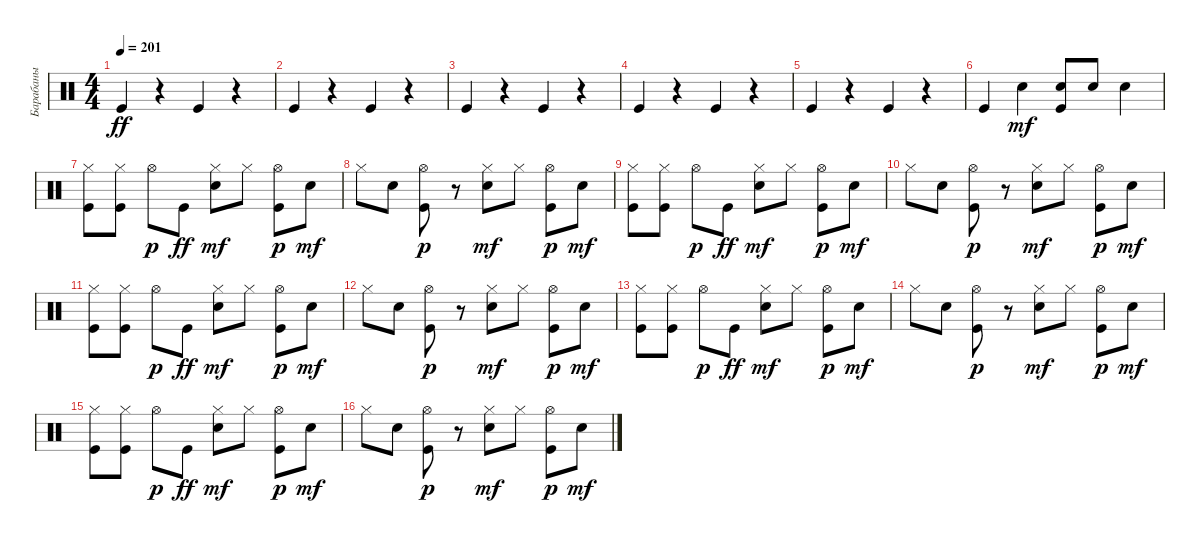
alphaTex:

\track ("Барабаны" "Барабаны") {instrument percussion}
\staff {score}
\articulation defaults
\ts (4 4)
\tempo 201
\clef neutral
\ks c "Kick (hit)".4{dy ff}
r.4 "Kick (hit)".4 r.4 |
"Kick (hit)".4 r.4 "Kick (hit)".4 r.4 |
"Kick (hit)".4 r.4 "Kick (hit)".4 r.4 |
"Kick (hit)".4 r.4 "Kick (hit)".4 r.4 |
"Kick (hit)".4 r.4 "Kick (hit)".4 r.4 |
"Kick (hit)".4 "Snare (hit) 2".4{dy mf} ("Kick (hit)" "Snare (hit) 2").8 "Snare (hit) 2".8 "Snare (hit) 2".4 |
("Kick (hit)" "Hi-Hat (closed)").8 ("Kick (hit)" "Hi-Hat (closed)").8 "Hi-Hat (open)".8{dy p} "Kick (hit)".8{dy ff} ("Snare (hit) 2" "Hi-Hat (closed)").8{dy mf} "Hi-Hat (closed)".8 ("Kick (hit)" "Hi-Hat (open)").8{dy p} "Snare (hit) 2".8{dy mf} |
"Hi-Hat (closed)".8 "Snare (hit) 2".8 ("Kick (hit)" "Hi-Hat (open)").8{dy p} r.8 ("Snare (hit) 2" "Hi-Hat (closed)").8{dy mf} "Hi-Hat (closed)".8 ("Kick (hit)" "Hi-Hat (open)").8{dy p} "Snare (hit) 2".8{dy mf} |
("Kick (hit)" "Hi-Hat (closed)").8 ("Kick (hit)" "Hi-Hat (closed)").8 "Hi-Hat (open)".8{dy p} "Kick (hit)".8{dy ff} ("Snare (hit) 2" "Hi-Hat (closed)").8{dy mf} "Hi-Hat (closed)".8 ("Kick (hit)" "Hi-Hat (open)").8{dy p} "Snare (hit) 2".8{dy mf} |
"Hi-Hat (closed)".8 "Snare (hit) 2".8 ("Kick (hit)" "Hi-Hat (open)").8{dy p} r.8 ("Snare (hit) 2" "Hi-Hat (closed)").8{dy mf} "Hi-Hat (closed)".8 ("Kick (hit)" "Hi-Hat (open)").8{dy p} "Snare (hit) 2".8{dy mf} |
("Kick (hit)" "Hi-Hat (closed)").8 ("Kick (hit)" "Hi-Hat (closed)").8 "Hi-Hat (open)".8{dy p} "Kick (hit)".8{dy ff} ("Snare (hit) 2" "Hi-Hat (closed)").8{dy mf} "Hi-Hat (closed)".8 ("Kick (hit)" "Hi-Hat (open)").8{dy p} "Snare (hit) 2".8{dy mf} |
"Hi-Hat (closed)".8 "Snare (hit) 2".8 ("Kick (hit)" "Hi-Hat (open)").8{dy p} r.8 ("Snare (hit) 2" "Hi-Hat (closed)").8{dy mf} "Hi-Hat (closed)".8 ("Kick (hit)" "Hi-Hat (open)").8{dy p} "Snare (hit) 2".8{dy mf} |
("Kick (hit)" "Hi-Hat (closed)").8 ("Kick (hit)" "Hi-Hat (closed)").8 "Hi-Hat (open)".8{dy p} "Kick (hit)".8{dy ff} ("Snare (hit) 2" "Hi-Hat (closed)").8{dy mf} "Hi-Hat (closed)".8 ("Kick (hit)" "Hi-Hat (open)").8{dy p} "Snare (hit) 2".8{dy mf} |
"Hi-Hat (closed)".8 "Snare (hit) 2".8 ("Kick (hit)" "Hi-Hat (open)").8{dy p} r.8 ("Snare (hit) 2" "Hi-Hat (closed)").8{dy mf} "Hi-Hat (closed)".8 ("Kick (hit)" "Hi-Hat (open)").8{dy p} "Snare (hit) 2".8{dy mf} |
("Kick (hit)" "Hi-Hat (closed)").8 ("Kick (hit)" "Hi-Hat (closed)").8 "Hi-Hat (open)".8{dy p} "Kick (hit)".8{dy ff} ("Snare (hit) 2" "Hi-Hat (closed)").8{dy mf} "Hi-Hat (closed)".8 ("Kick (hit)" "Hi-Hat (open)").8{dy p} "Snare (hit) 2".8{dy mf} |
"Hi-Hat (closed)".8 "Snare (hit) 2".8 ("Kick (hit)" "Hi-Hat (open)").8{dy p} r.8 ("Snare (hit) 2" "Hi-Hat (closed)").8{dy mf} "Hi-Hat (closed)".8 ("Kick (hit)" "Hi-Hat (open)").8{dy p} "Snare (hit) 2".8{dy mf}
